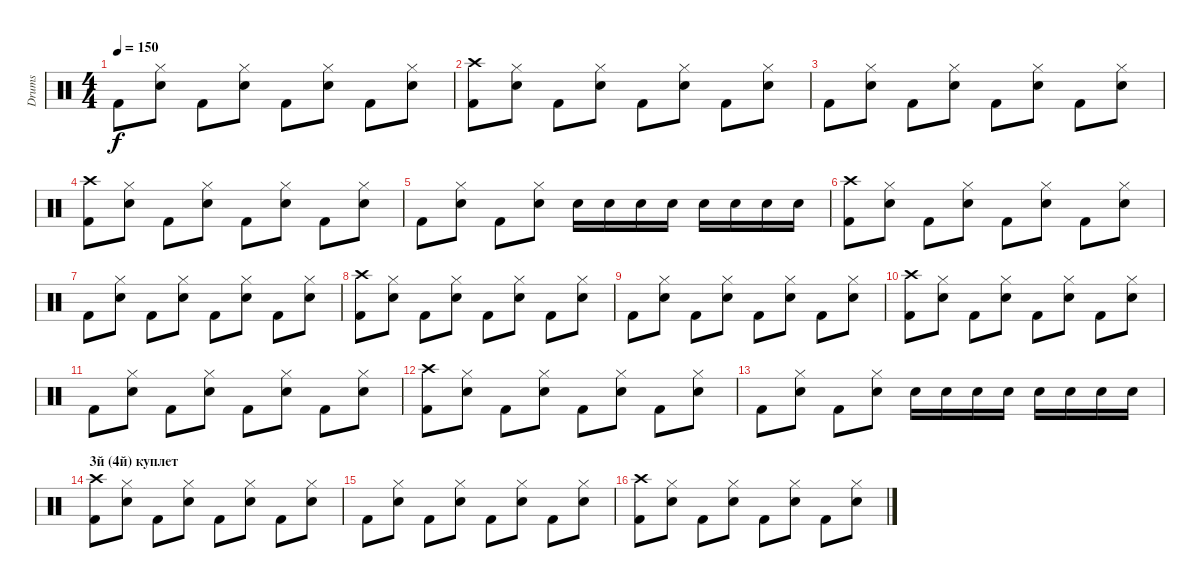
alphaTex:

\track ("Drums" "Drums") {instrument percussion}
\staff {score}
\articulation defaults
\ts (4 4)
\tempo 150
\clef neutral
\ks c "Kick (hit) 2".8{dy f}
("Hi-Hat (closed)" "Electric Snare (hit)").8 "Kick (hit) 2".8 ("Hi-Hat (closed)" "Electric Snare (hit)").8 "Kick (hit) 2".8 ("Hi-Hat (closed)" "Electric Snare (hit)").8 "Kick (hit) 2".8 ("Hi-Hat (closed)" "Electric Snare (hit)").8 |
("Crash high (hit)" "Kick (hit) 2").8 ("Hi-Hat (closed)" "Electric Snare (hit)").8 "Kick (hit) 2".8 ("Hi-Hat (closed)" "Electric Snare (hit)").8 "Kick (hit) 2".8 ("Hi-Hat (closed)" "Electric Snare (hit)").8 "Kick (hit) 2".8 ("Hi-Hat (closed)" "Electric Snare (hit)").8 |
"Kick (hit) 2".8 ("Hi-Hat (closed)" "Electric Snare (hit)").8 "Kick (hit) 2".8 ("Hi-Hat (closed)" "Electric Snare (hit)").8 "Kick (hit) 2".8 ("Hi-Hat (closed)" "Electric Snare (hit)").8 "Kick (hit) 2".8 ("Hi-Hat (closed)" "Electric Snare (hit)").8 |
("Crash high (hit)" "Kick (hit) 2").8 ("Hi-Hat (closed)" "Electric Snare (hit)").8 "Kick (hit) 2".8 ("Hi-Hat (closed)" "Electric Snare (hit)").8 "Kick (hit) 2".8 ("Hi-Hat (closed)" "Electric Snare (hit)").8 "Kick (hit) 2".8 ("Hi-Hat (closed)" "Electric Snare (hit)").8 |
"Kick (hit) 2".8 ("Hi-Hat (closed)" "Electric Snare (hit)").8 "Kick (hit) 2".8 ("Hi-Hat (closed)" "Electric Snare (hit)").8 "Snare (hit) 2".16 "Snare (hit) 2".16 "Snare (hit) 2".16 "Snare (hit) 2".16 "Snare (hit) 2".16 "Snare (hit) 2".16 "Snare (hit) 2".16 "Snare (hit) 2".16 |
("Crash high (hit)" "Kick (hit) 2").8 ("Hi-Hat (closed)" "Electric Snare (hit)").8 "Kick (hit) 2".8 ("Hi-Hat (closed)" "Electric Snare (hit)").8 "Kick (hit) 2".8 ("Hi-Hat (closed)" "Electric Snare (hit)").8 "Kick (hit) 2".8 ("Hi-Hat (closed)" "Electric Snare (hit)").8 |
"Kick (hit) 2".8 ("Hi-Hat (closed)" "Electric Snare (hit)").8 "Kick (hit) 2".8 ("Hi-Hat (closed)" "Electric Snare (hit)").8 "Kick (hit) 2".8 ("Hi-Hat (closed)" "Electric Snare (hit)").8 "Kick (hit) 2".8 ("Hi-Hat (closed)" "Electric Snare (hit)").8 |
("Crash high (hit)" "Kick (hit) 2").8 ("Hi-Hat (closed)" "Electric Snare (hit)").8 "Kick (hit) 2".8 ("Hi-Hat (closed)" "Electric Snare (hit)").8 "Kick (hit) 2".8 ("Hi-Hat (closed)" "Electric Snare (hit)").8 "Kick (hit) 2".8 ("Hi-Hat (closed)" "Electric Snare (hit)").8 |
"Kick (hit) 2".8 ("Hi-Hat (closed)" "Electric Snare (hit)").8 "Kick (hit) 2".8 ("Hi-Hat (closed)" "Electric Snare (hit)").8 "Kick (hit) 2".8 ("Hi-Hat (closed)" "Electric Snare (hit)").8 "Kick (hit) 2".8 ("Hi-Hat (closed)" "Electric Snare (hit)").8 |
("Crash high (hit)" "Kick (hit) 2").8 ("Hi-Hat (closed)" "Electric Snare (hit)").8 "Kick (hit) 2".8 ("Hi-Hat (closed)" "Electric Snare (hit)").8 "Kick (hit) 2".8 ("Hi-Hat (closed)" "Electric Snare (hit)").8 "Kick (hit) 2".8 ("Hi-Hat (closed)" "Electric Snare (hit)").8 |
"Kick (hit) 2".8 ("Hi-Hat (closed)" "Electric Snare (hit)").8 "Kick (hit) 2".8 ("Hi-Hat (closed)" "Electric Snare (hit)").8 "Kick (hit) 2".8 ("Hi-Hat (closed)" "Electric Snare (hit)").8 "Kick (hit) 2".8 ("Hi-Hat (closed)" "Electric Snare (hit)").8 |
("Crash high (hit)" "Kick (hit) 2").8 ("Hi-Hat (closed)" "Electric Snare (hit)").8 "Kick (hit) 2".8 ("Hi-Hat (closed)" "Electric Snare (hit)").8 "Kick (hit) 2".8 ("Hi-Hat (closed)" "Electric Snare (hit)").8 "Kick (hit) 2".8 ("Hi-Hat (closed)" "Electric Snare (hit)").8 |
"Kick (hit) 2".8 ("Hi-Hat (closed)" "Electric Snare (hit)").8 "Kick (hit) 2".8 ("Hi-Hat (closed)" "Electric Snare (hit)").8 "Snare (hit) 2".16 "Snare (hit) 2".16 "Snare (hit) 2".16 "Snare (hit) 2".16 "Snare (hit) 2".16 "Snare (hit) 2".16 "Snare (hit) 2".16 "Snare (hit) 2".16 |
\section ("" "3й (4й) куплет")
("Crash high (hit)" "Kick (hit) 2").8 ("Hi-Hat (closed)" "Electric Snare (hit)").8 "Kick (hit) 2".8 ("Hi-Hat (closed)" "Electric Snare (hit)").8 "Kick (hit) 2".8 ("Hi-Hat (closed)" "Electric Snare (hit)").8 "Kick (hit) 2".8 ("Hi-Hat (closed)" "Electric Snare (hit)").8 |
"Kick (hit) 2".8 ("Hi-Hat (closed)" "Electric Snare (hit)").8 "Kick (hit) 2".8 ("Hi-Hat (closed)" "Electric Snare (hit)").8 "Kick (hit) 2".8 ("Hi-Hat (closed)" "Electric Snare (hit)").8 "Kick (hit) 2".8 ("Hi-Hat (closed)" "Electric Snare (hit)").8 |
("Crash high (hit)" "Kick (hit) 2").8 ("Hi-Hat (closed)" "Electric Snare (hit)").8 "Kick (hit) 2".8 ("Hi-Hat (closed)" "Electric Snare (hit)").8 "Kick (hit) 2".8 ("Hi-Hat (closed)" "Electric Snare (hit)").8 "Kick (hit) 2".8 ("Hi-Hat (closed)" "Electric Snare (hit)").8
